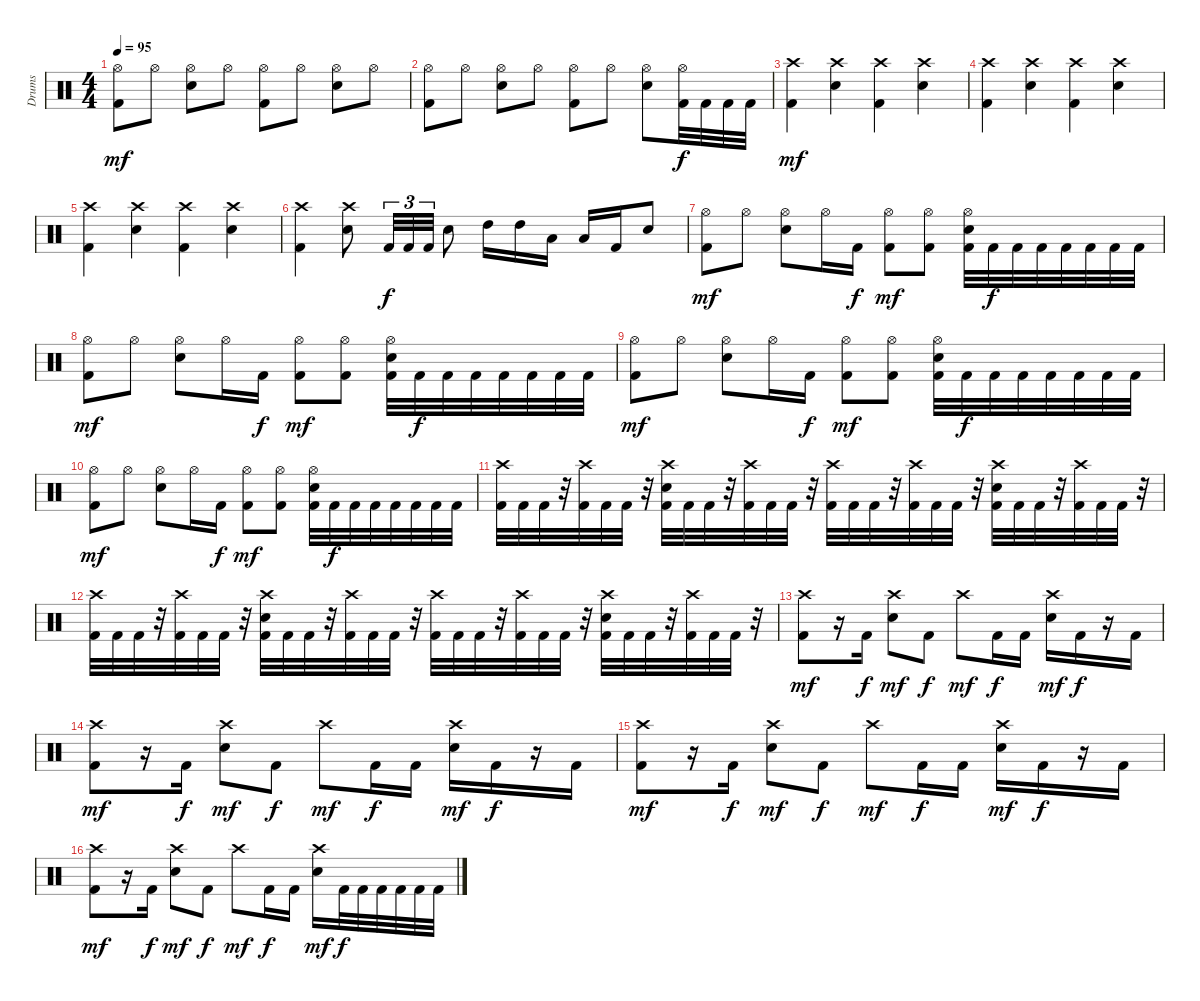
\track ("Drums" "Drums") {instrument percussion}
\staff {score}
\articulation defaults
\ts (4 4)
\tempo 95
\clef neutral
\ks c
("Hi-Hat (open)" "Kick (hit) 2").8{dy mf} "Hi-Hat (open)".8 ("Hi-Hat (open)" "Electric Snare (hit)").8 "Hi-Hat (open)".8 ("Hi-Hat (open)" "Kick (hit) 2").8 "Hi-Hat (open)".8 ("Hi-Hat (open)" "Electric Snare (hit)").8 "Hi-Hat (open)".8 |
("Hi-Hat (open)" "Kick (hit) 2").8 "Hi-Hat (open)".8 ("Hi-Hat (open)" "Electric Snare (hit)").8 "Hi-Hat (open)".8 ("Hi-Hat (open)" "Kick (hit) 2").8 "Hi-Hat (open)".8 ("Hi-Hat (open)" "Electric Snare (hit)").8 ("Hi-Hat (open)" "Kick (hit) 2").32{dy f} "Kick (hit) 2".32 "Kick (hit) 2".32 "Kick (hit) 2".32 |
("Crash high (hit)" "Kick (hit) 2").4{dy mf} ("Crash high (hit)" "Electric Snare (hit)").4 ("Crash high (hit)" "Kick (hit) 2").4 ("Crash high (hit)" "Electric Snare (hit)").4 |
("Crash high (hit)" "Kick (hit) 2").4 ("Crash high (hit)" "Electric Snare (hit)").4 ("Crash high (hit)" "Kick (hit) 2").4 ("Crash high (hit)" "Electric Snare (hit)").4 |
("Crash high (hit)" "Kick (hit) 2").4 ("Crash high (hit)" "Electric Snare (hit)").4 ("Crash high (hit)" "Kick (hit) 2").4 ("Crash high (hit)" "Electric Snare (hit)").4 |
("Crash high (hit)" "Kick (hit) 2").4 ("Crash high (hit)" "Electric Snare (hit)").8 "Kick (hit) 2".32{tu (3 2) dy f} "Kick (hit) 2".32{tu (3 2)} "Kick (hit) 2".32{tu (3 2)} "Electric Snare (hit)".8 "High Tom (hit)".16 "High Tom (hit)".16 "Low Tom (hit)".16 "Low Tom (hit)".16 "Kick (hit) 2".16 "Electric Snare (hit)".8 |
("Hi-Hat (open)" "Kick (hit) 2").8{dy mf} "Hi-Hat (open)".8 ("Hi-Hat (open)" "Electric Snare (hit)").8 "Hi-Hat (open)".16 "Kick (hit) 2".16{dy f} ("Hi-Hat (open)" "Kick (hit) 2").8{dy mf} ("Hi-Hat (open)" "Kick (hit) 2").8 ("Hi-Hat (open)" "Electric Snare (hit)" "Kick (hit) 2").32 "Kick (hit) 2".32{dy f} "Kick (hit) 2".32 "Kick (hit) 2".32 "Kick (hit) 2".32 "Kick (hit) 2".32 "Kick (hit) 2".32 "Kick (hit) 2".32 |
("Hi-Hat (open)" "Kick (hit) 2").8{dy mf} "Hi-Hat (open)".8 ("Hi-Hat (open)" "Electric Snare (hit)").8 "Hi-Hat (open)".16 "Kick (hit) 2".16{dy f} ("Hi-Hat (open)" "Kick (hit) 2").8{dy mf} ("Hi-Hat (open)" "Kick (hit) 2").8 ("Hi-Hat (open)" "Electric Snare (hit)" "Kick (hit) 2").32 "Kick (hit) 2".32{dy f} "Kick (hit) 2".32 "Kick (hit) 2".32 "Kick (hit) 2".32 "Kick (hit) 2".32 "Kick (hit) 2".32 "Kick (hit) 2".32 |
("Hi-Hat (open)" "Kick (hit) 2").8{dy mf} "Hi-Hat (open)".8 ("Hi-Hat (open)" "Electric Snare (hit)").8 "Hi-Hat (open)".16 "Kick (hit) 2".16{dy f} ("Hi-Hat (open)" "Kick (hit) 2").8{dy mf} ("Hi-Hat (open)" "Kick (hit) 2").8 ("Hi-Hat (open)" "Electric Snare (hit)" "Kick (hit) 2").32 "Kick (hit) 2".32{dy f} "Kick (hit) 2".32 "Kick (hit) 2".32 "Kick (hit) 2".32 "Kick (hit) 2".32 "Kick (hit) 2".32 "Kick (hit) 2".32 |
("Hi-Hat (open)" "Kick (hit) 2").8{dy mf} "Hi-Hat (open)".8 ("Hi-Hat (open)" "Electric Snare (hit)").8 "Hi-Hat (open)".16 "Kick (hit) 2".16{dy f} ("Hi-Hat (open)" "Kick (hit) 2").8{dy mf} ("Hi-Hat (open)" "Kick (hit) 2").8 ("Hi-Hat (open)" "Electric Snare (hit)" "Kick (hit) 2").32 "Kick (hit) 2".32{dy f} "Kick (hit) 2".32 "Kick (hit) 2".32 "Kick (hit) 2".32 "Kick (hit) 2".32 "Kick (hit) 2".32 "Kick (hit) 2".32 |
("Crash high (hit)" "Kick (hit) 2").32 "Kick (hit) 2".32 "Kick (hit) 2".32 r.32 ("Crash high (hit)" "Kick (hit) 2").32 "Kick (hit) 2".32 "Kick (hit) 2".32 r.32 ("Crash high (hit)" "Electric Snare (hit)" "Kick (hit) 2").32 "Kick (hit) 2".32 "Kick (hit) 2".32 r.32 ("Crash high (hit)" "Kick (hit) 2").32 "Kick (hit) 2".32 "Kick (hit) 2".32 r.32 ("Crash high (hit)" "Kick (hit) 2").32 "Kick (hit) 2".32 "Kick (hit) 2".32 r.32 ("Crash high (hit)" "Kick (hit) 2").32 "Kick (hit) 2".32 "Kick (hit) 2".32 r.32 ("Crash high (hit)" "Electric Snare (hit)" "Kick (hit) 2").32 "Kick (hit) 2".32 "Kick (hit) 2".32 r.32 ("Crash high (hit)" "Kick (hit) 2").32 "Kick (hit) 2".32 "Kick (hit) 2".32 r.32 |
("Crash high (hit)" "Kick (hit) 2").32 "Kick (hit) 2".32 "Kick (hit) 2".32 r.32 ("Crash high (hit)" "Kick (hit) 2").32 "Kick (hit) 2".32 "Kick (hit) 2".32 r.32 ("Crash high (hit)" "Electric Snare (hit)" "Kick (hit) 2").32 "Kick (hit) 2".32 "Kick (hit) 2".32 r.32 ("Crash high (hit)" "Kick (hit) 2").32 "Kick (hit) 2".32 "Kick (hit) 2".32 r.32 ("Crash high (hit)" "Kick (hit) 2").32 "Kick (hit) 2".32 "Kick (hit) 2".32 r.32 ("Crash high (hit)" "Kick (hit) 2").32 "Kick (hit) 2".32 "Kick (hit) 2".32 r.32 ("Crash high (hit)" "Electric Snare (hit)" "Kick (hit) 2").32 "Kick (hit) 2".32 "Kick (hit) 2".32 r.32 ("Crash high (hit)" "Kick (hit) 2").32 "Kick (hit) 2".32 "Kick (hit) 2".32 r.32 |
("Crash high (hit)" "Kick (hit) 2").8{dy mf} r.16 "Kick (hit) 2".16{dy f} ("Crash high (hit)" "Electric Snare (hit)").8{dy mf} "Kick (hit) 2".8{dy f} "Crash high (hit)".8{dy mf} "Kick (hit) 2".16{dy f} "Kick (hit) 2".16 ("Crash high (hit)" "Electric Snare (hit)").16{dy mf} "Kick (hit) 2".16{dy f} r.16 "Kick (hit) 2".16 |
("Crash high (hit)" "Kick (hit) 2").8{dy mf} r.16 "Kick (hit) 2".16{dy f} ("Crash high (hit)" "Electric Snare (hit)").8{dy mf} "Kick (hit) 2".8{dy f} "Crash high (hit)".8{dy mf} "Kick (hit) 2".16{dy f} "Kick (hit) 2".16 ("Crash high (hit)" "Electric Snare (hit)").16{dy mf} "Kick (hit) 2".16{dy f} r.16 "Kick (hit) 2".16 |
("Crash high (hit)" "Kick (hit) 2").8{dy mf} r.16 "Kick (hit) 2".16{dy f} ("Crash high (hit)" "Electric Snare (hit)").8{dy mf} "Kick (hit) 2".8{dy f} "Crash high (hit)".8{dy mf} "Kick (hit) 2".16{dy f} "Kick (hit) 2".16 ("Crash high (hit)" "Electric Snare (hit)").16{dy mf} "Kick (hit) 2".16{dy f} r.16 "Kick (hit) 2".16 |
("Crash high (hit)" "Kick (hit) 2").8{dy mf} r.16 "Kick (hit) 2".16{dy f} ("Crash high (hit)" "Electric Snare (hit)").8{dy mf} "Kick (hit) 2".8{dy f} "Crash high (hit)".8{dy mf} "Kick (hit) 2".16{dy f} "Kick (hit) 2".16 ("Crash high (hit)" "Electric Snare (hit)").16{dy mf} "Kick (hit) 2".32{dy f} "Kick (hit) 2".32 "Kick (hit) 2".32 "Kick (hit) 2".32 "Kick (hit) 2".32 "Kick (hit) 2".32
